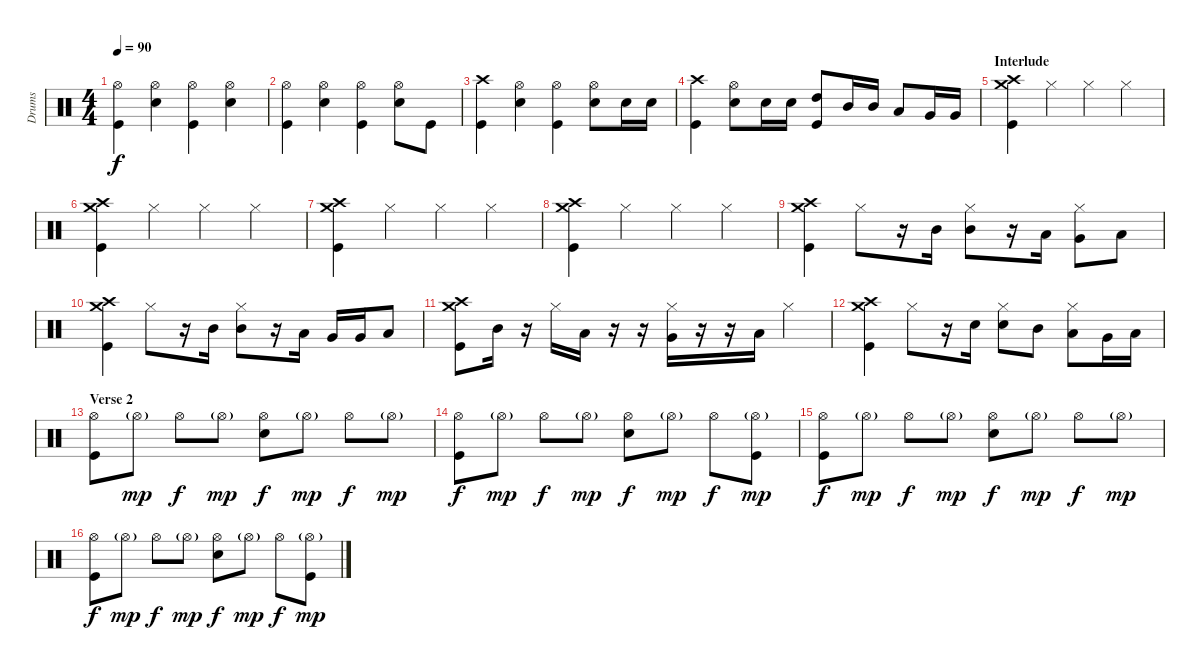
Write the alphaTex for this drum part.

\track ("Drums" "Drums") {instrument percussion}
\staff {score}
\articulation defaults
\ts (4 4)
\tempo 90
\clef neutral
\ks c
("Hi-Hat (open)" "Kick (hit)").4{dy f} ("Hi-Hat (open)" "Electric Snare (hit)").4 ("Hi-Hat (open)" "Kick (hit)").4 ("Hi-Hat (open)" "Electric Snare (hit)").4 |
("Hi-Hat (open)" "Kick (hit)").4 ("Hi-Hat (open)" "Electric Snare (hit)").4 ("Hi-Hat (open)" "Kick (hit)").4 ("Hi-Hat (open)" "Electric Snare (hit)").8 "Kick (hit)".8 |
("Crash high (hit)" "Kick (hit)").4 ("Hi-Hat (open)" "Electric Snare (hit)").4 ("Hi-Hat (open)" "Kick (hit)").4 ("Hi-Hat (open)" "Electric Snare (hit)").8 "Electric Snare (hit)".16 "Electric Snare (hit)".16 |
("Crash high (hit)" "Kick (hit)").4 ("Hi-Hat (open)" "Electric Snare (hit)").8 "Electric Snare (hit)".16 "Electric Snare (hit)".16 ("High Tom (hit)" "Kick (hit)").8 "Mid Tom (hit)".16 "Mid Tom (hit)".16 "Low Tom (hit)".8 "Very Low Tom (hit)".16 "Very Low Tom (hit)".16 |
\section ("" "Interlude")
("Crash high (hit)" "Crash medium (hit)" "Kick (hit)").4 "Hi-Hat (closed)".4 "Hi-Hat (closed)".4 "Hi-Hat (closed)".4 |
("Crash high (hit)" "Crash medium (hit)" "Kick (hit)").4 "Hi-Hat (closed)".4 "Hi-Hat (closed)".4 "Hi-Hat (closed)".4 |
("Crash high (hit)" "Crash medium (hit)" "Kick (hit)").4 "Hi-Hat (closed)".4 "Hi-Hat (closed)".4 "Hi-Hat (closed)".4 |
("Crash high (hit)" "Crash medium (hit)" "Kick (hit)").4 "Hi-Hat (closed)".4 "Hi-Hat (closed)".4 "Hi-Hat (closed)".4 |
("Crash high (hit)" "Crash medium (hit)" "Kick (hit)").4 "Hi-Hat (closed)".8 r.16 "Mid Tom (hit)".16 ("Hi-Hat (closed)" "Mid Tom (hit)").8 r.16 "Low Tom (hit)".16 ("Hi-Hat (closed)" "Very Low Tom (hit)").8 "Low Floor Tom (hit)".8 |
("Crash high (hit)" "Crash medium (hit)" "Kick (hit)").4 "Hi-Hat (closed)".8 r.16 "Mid Tom (hit)".16 ("Hi-Hat (closed)" "Mid Tom (hit)").8 r.16 "Low Tom (hit)".16 "Very Low Tom (hit)".16 "Very Low Tom (hit)".16 "Low Floor Tom (hit)".8 |
("Crash high (hit)" "Crash medium (hit)" "Kick (hit)").8 "Mid Tom (hit)".16 r.16 "Hi-Hat (closed)".16 "Low Tom (hit)".16 r.16 r.16 ("Hi-Hat (closed)" "Very Low Tom (hit)").16 r.16 r.16 "Low Floor Tom (hit)".16 "Hi-Hat (closed)".4 |
("Crash high (hit)" "Crash medium (hit)" "Kick (hit)").4 "Hi-Hat (closed)".8 r.16 "Electric Snare (hit)".16 ("Hi-Hat (closed)" "Electric Snare (hit)").8 "Mid Tom (hit)".8 ("Hi-Hat (closed)" "Low Tom (hit)").8 "Very Low Tom (hit)".16 "Low Floor Tom (hit)".16 |
\section ("" "Verse 2")
("Hi-Hat (open)" "Kick (hit)").8 "Hi-Hat (open)"{g}.8{dy mp} "Hi-Hat (open)".8{dy f} "Hi-Hat (open)"{g}.8{dy mp} ("Hi-Hat (open)" "Electric Snare (hit)").8{dy f} "Hi-Hat (open)"{g}.8{dy mp} "Hi-Hat (open)".8{dy f} "Hi-Hat (open)"{g}.8{dy mp} |
("Hi-Hat (open)" "Kick (hit)").8{dy f} "Hi-Hat (open)"{g}.8{dy mp} "Hi-Hat (open)".8{dy f} "Hi-Hat (open)"{g}.8{dy mp} ("Hi-Hat (open)" "Electric Snare (hit)").8{dy f} "Hi-Hat (open)"{g}.8{dy mp} "Hi-Hat (open)".8{dy f} ("Hi-Hat (open)"{g} "Kick (hit)").8{dy mp} |
("Hi-Hat (open)" "Kick (hit)").8{dy f} "Hi-Hat (open)"{g}.8{dy mp} "Hi-Hat (open)".8{dy f} "Hi-Hat (open)"{g}.8{dy mp} ("Hi-Hat (open)" "Electric Snare (hit)").8{dy f} "Hi-Hat (open)"{g}.8{dy mp} "Hi-Hat (open)".8{dy f} "Hi-Hat (open)"{g}.8{dy mp} |
("Hi-Hat (open)" "Kick (hit)").8{dy f} "Hi-Hat (open)"{g}.8{dy mp} "Hi-Hat (open)".8{dy f} "Hi-Hat (open)"{g}.8{dy mp} ("Hi-Hat (open)" "Electric Snare (hit)").8{dy f} "Hi-Hat (open)"{g}.8{dy mp} "Hi-Hat (open)".8{dy f} ("Hi-Hat (open)"{g} "Kick (hit)").8{dy mp}
